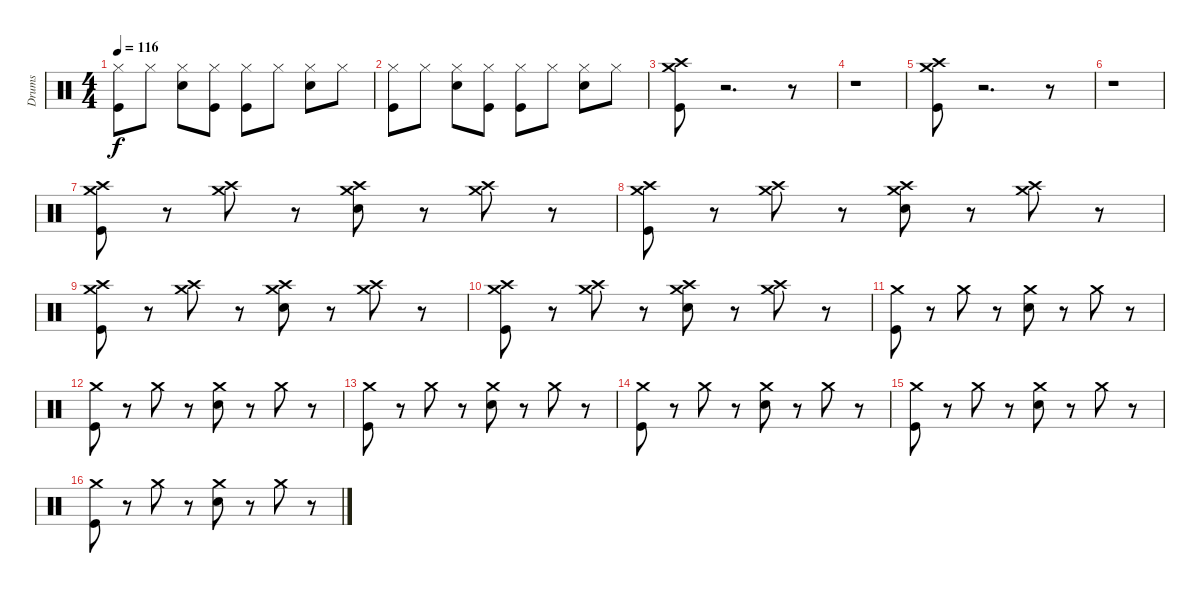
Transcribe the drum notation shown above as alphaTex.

\track ("Drums" "Drums") {instrument percussion}
\staff {score}
\articulation defaults
\ts (4 4)
\tempo 116
\clef neutral
\ks c
("Hi-Hat (closed)" "Kick (hit)").8{dy f} "Hi-Hat (closed)".8 ("Hi-Hat (closed)" "Electric Snare (hit)").8 ("Hi-Hat (closed)" "Kick (hit)").8 ("Hi-Hat (closed)" "Kick (hit)").8 "Hi-Hat (closed)".8 ("Hi-Hat (closed)" "Electric Snare (hit)").8 "Hi-Hat (closed)".8 |
("Hi-Hat (closed)" "Kick (hit)").8 "Hi-Hat (closed)".8 ("Hi-Hat (closed)" "Electric Snare (hit)").8 ("Hi-Hat (closed)" "Kick (hit)").8 ("Hi-Hat (closed)" "Kick (hit)").8 "Hi-Hat (closed)".8 ("Hi-Hat (closed)" "Electric Snare (hit)").8 "Hi-Hat (closed)".8 |
("Crash high (hit)" "Kick (hit)" "Crash medium (hit)").8 r.2{d} r.8 |
r.1 |
("Kick (hit)" "Crash high (hit)" "Crash medium (hit)").8 r.2{d} r.8 |
r.1 |
("Crash high (hit)" "Kick (hit)" "Crash medium (hit)").8 r.8 ("Crash high (hit)" "Crash medium (hit)").8 r.8 ("Crash high (hit)" "Electric Snare (hit)" "Crash medium (hit)").8 r.8 ("Crash high (hit)" "Crash medium (hit)").8 r.8 |
("Crash high (hit)" "Crash medium (hit)" "Kick (hit)").8 r.8 ("Crash high (hit)" "Crash medium (hit)").8 r.8 ("Crash high (hit)" "Electric Snare (hit)" "Crash medium (hit)").8 r.8 ("Crash high (hit)" "Crash medium (hit)").8 r.8 |
("Crash high (hit)" "Kick (hit)" "Crash medium (hit)").8 r.8 ("Crash high (hit)" "Crash medium (hit)").8 r.8 ("Crash high (hit)" "Electric Snare (hit)" "Crash medium (hit)").8 r.8 ("Crash high (hit)" "Crash medium (hit)").8 r.8 |
("Crash high (hit)" "Crash medium (hit)" "Kick (hit)").8 r.8 ("Crash high (hit)" "Crash medium (hit)").8 r.8 ("Crash high (hit)" "Electric Snare (hit)" "Crash medium (hit)").8 r.8 ("Crash high (hit)" "Crash medium (hit)").8 r.8 |
("Kick (hit)" "Crash medium (hit)").8 r.8 "Crash medium (hit)".8 r.8 ("Electric Snare (hit)" "Crash medium (hit)").8 r.8 "Crash medium (hit)".8 r.8 |
("Kick (hit)" "Crash medium (hit)").8 r.8 "Crash medium (hit)".8 r.8 ("Crash medium (hit)" "Electric Snare (hit)").8 r.8 "Crash medium (hit)".8 r.8 |
("Kick (hit)" "Crash medium (hit)").8 r.8 "Crash medium (hit)".8 r.8 ("Electric Snare (hit)" "Crash medium (hit)").8 r.8 "Crash medium (hit)".8 r.8 |
("Kick (hit)" "Crash medium (hit)").8 r.8 "Crash medium (hit)".8 r.8 ("Crash medium (hit)" "Electric Snare (hit)").8 r.8 "Crash medium (hit)".8 r.8 |
("Kick (hit)" "Crash medium (hit)").8 r.8 "Crash medium (hit)".8 r.8 ("Electric Snare (hit)" "Crash medium (hit)").8 r.8 "Crash medium (hit)".8 r.8 |
("Kick (hit)" "Crash medium (hit)").8 r.8 "Crash medium (hit)".8 r.8 ("Crash medium (hit)" "Electric Snare (hit)").8 r.8 "Crash medium (hit)".8 r.8
